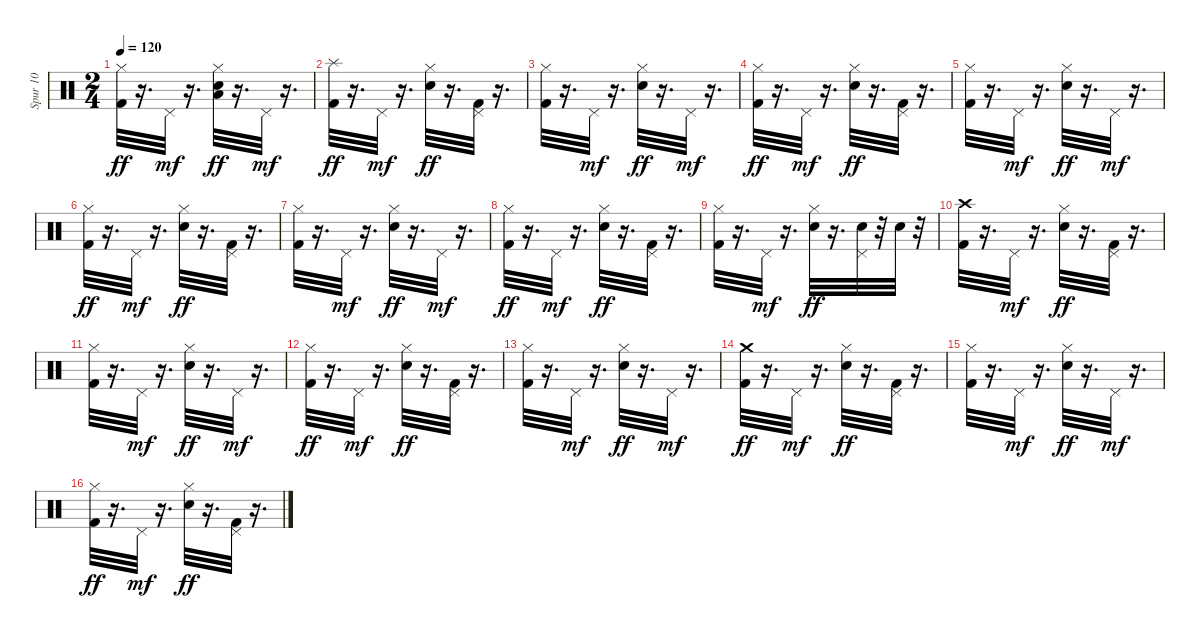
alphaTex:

\track ("Spur 10" "Spur 10") {instrument percussion}
\staff {score}
\articulation defaults
\ts (2 4)
\tempo 120
\clef neutral
\ks c
("Hi-Hat (closed)" "Kick (hit) 2").32{dy ff} r.16{d} "Pedal Hi-Hat (hit)".32{dy mf} r.16{d} ("Low Tom (hit)" "Hi-Hat (closed)" "Snare (hit) 2").32{dy ff} r.16{d} "Pedal Hi-Hat (hit)".32{dy mf} r.16{d} |
("Splash (hit)" "Kick (hit) 2").32{dy ff} r.16{d} "Pedal Hi-Hat (hit)".32{dy mf} r.16{d} ("Hi-Hat (closed)" "Snare (hit) 2").32{dy ff} r.16{d} ("Pedal Hi-Hat (hit)" "Kick (hit) 2").32 r.16{d} |
("Hi-Hat (closed)" "Kick (hit) 2").32 r.16{d} "Pedal Hi-Hat (hit)".32{dy mf} r.16{d} ("Hi-Hat (closed)" "Snare (hit) 2").32{dy ff} r.16{d} "Pedal Hi-Hat (hit)".32{dy mf} r.16{d} |
("Hi-Hat (closed)" "Kick (hit) 2").32{dy ff} r.16{d} "Pedal Hi-Hat (hit)".32{dy mf} r.16{d} ("Hi-Hat (closed)" "Snare (hit) 2").32{dy ff} r.16{d} ("Pedal Hi-Hat (hit)" "Kick (hit) 2").32 r.16{d} |
("Hi-Hat (closed)" "Kick (hit) 2").32 r.16{d} "Pedal Hi-Hat (hit)".32{dy mf} r.16{d} ("Hi-Hat (closed)" "Snare (hit) 2").32{dy ff} r.16{d} "Pedal Hi-Hat (hit)".32{dy mf} r.16{d} |
("Hi-Hat (closed)" "Kick (hit) 2").32{dy ff} r.16{d} "Pedal Hi-Hat (hit)".32{dy mf} r.16{d} ("Hi-Hat (closed)" "Snare (hit) 2").32{dy ff} r.16{d} ("Pedal Hi-Hat (hit)" "Kick (hit) 2").32 r.16{d} |
("Hi-Hat (closed)" "Kick (hit) 2").32 r.16{d} "Pedal Hi-Hat (hit)".32{dy mf} r.16{d} ("Hi-Hat (closed)" "Snare (hit) 2").32{dy ff} r.16{d} "Pedal Hi-Hat (hit)".32{dy mf} r.16{d} |
("Hi-Hat (closed)" "Kick (hit) 2").32{dy ff} r.16{d} "Pedal Hi-Hat (hit)".32{dy mf} r.16{d} ("Hi-Hat (closed)" "Snare (hit) 2").32{dy ff} r.16{d} ("Pedal Hi-Hat (hit)" "Kick (hit) 2").32 r.16{d} |
("Hi-Hat (closed)" "Kick (hit) 2").32 r.16{d} "Pedal Hi-Hat (hit)".32{dy mf} r.16{d} ("Hi-Hat (closed)" "Snare (hit) 2").32{dy ff} r.16{d} ("Pedal Hi-Hat (hit)" "Snare (hit) 2").32 r.32 "Snare (hit) 2".32 r.32 |
("Crash high (hit)" "Kick (hit) 2").32 r.16{d} "Pedal Hi-Hat (hit)".32{dy mf} r.16{d} ("Hi-Hat (closed)" "Snare (hit) 2").32{dy ff} r.16{d} ("Pedal Hi-Hat (hit)" "Kick (hit) 2").32 r.16{d} |
("Hi-Hat (closed)" "Kick (hit) 2").32 r.16{d} "Pedal Hi-Hat (hit)".32{dy mf} r.16{d} ("Hi-Hat (closed)" "Snare (hit) 2").32{dy ff} r.16{d} "Pedal Hi-Hat (hit)".32{dy mf} r.16{d} |
("Hi-Hat (closed)" "Kick (hit) 2").32{dy ff} r.16{d} "Pedal Hi-Hat (hit)".32{dy mf} r.16{d} ("Hi-Hat (closed)" "Snare (hit) 2").32{dy ff} r.16{d} ("Pedal Hi-Hat (hit)" "Kick (hit) 2").32 r.16{d} |
("Hi-Hat (closed)" "Kick (hit) 2").32 r.16{d} "Pedal Hi-Hat (hit)".32{dy mf} r.16{d} ("Hi-Hat (closed)" "Snare (hit) 2").32{dy ff} r.16{d} "Pedal Hi-Hat (hit)".32{dy mf} r.16{d} |
("Crash medium (hit)" "Kick (hit) 2").32{dy ff} r.16{d} "Pedal Hi-Hat (hit)".32{dy mf} r.16{d} ("Hi-Hat (closed)" "Snare (hit) 2").32{dy ff} r.16{d} ("Pedal Hi-Hat (hit)" "Kick (hit) 2").32 r.16{d} |
("Hi-Hat (closed)" "Kick (hit) 2").32 r.16{d} "Pedal Hi-Hat (hit)".32{dy mf} r.16{d} ("Hi-Hat (closed)" "Snare (hit) 2").32{dy ff} r.16{d} "Pedal Hi-Hat (hit)".32{dy mf} r.16{d} |
("Hi-Hat (closed)" "Kick (hit) 2").32{dy ff} r.16{d} "Pedal Hi-Hat (hit)".32{dy mf} r.16{d} ("Hi-Hat (closed)" "Snare (hit) 2").32{dy ff} r.16{d} ("Pedal Hi-Hat (hit)" "Kick (hit) 2").32 r.16{d}
